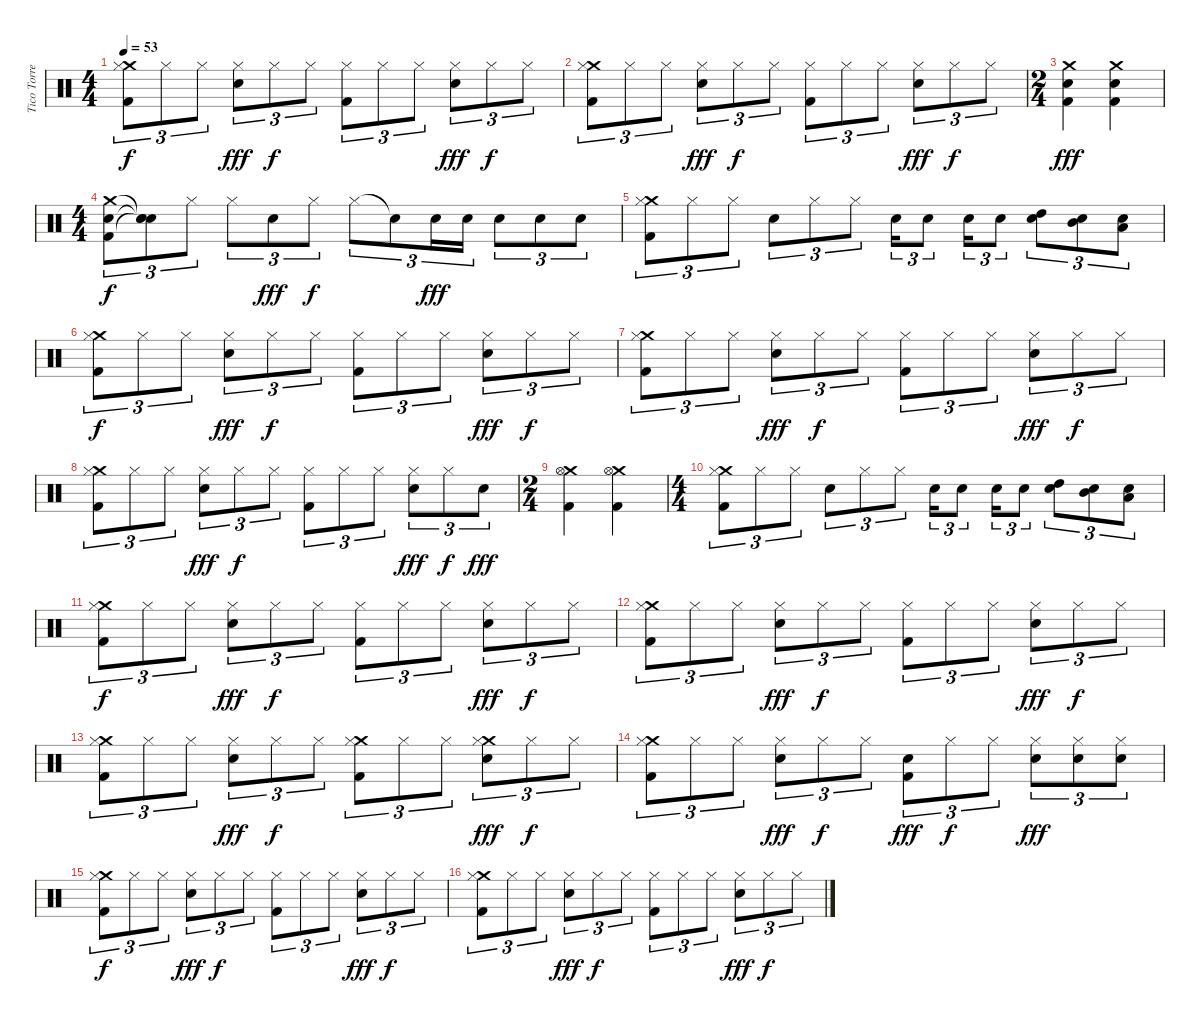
\track ("Tico Torres (Drums)" "Tico Torre") {instrument percussion}
\staff {score}
\articulation defaults
\ts (4 4)
\tempo 53
\clef neutral
\ks c
("Crash medium (hit)" "Hi-Hat (closed)" "Kick (hit) 2").8{tu (3 2) dy f} "Hi-Hat (closed)".8{tu (3 2)} "Hi-Hat (closed)".8{tu (3 2)} ("Snare (hit) 2" "Hi-Hat (closed)").8{tu (3 2) dy fff} "Hi-Hat (closed)".8{tu (3 2) dy f} "Hi-Hat (closed)".8{tu (3 2)} ("Hi-Hat (closed)" "Kick (hit) 2").8{tu (3 2)} "Hi-Hat (closed)".8{tu (3 2)} "Hi-Hat (closed)".8{tu (3 2)} ("Snare (hit) 2" "Hi-Hat (closed)").8{tu (3 2) dy fff} "Hi-Hat (closed)".8{tu (3 2) dy f} "Hi-Hat (closed)".8{tu (3 2)} |
("Crash medium (hit)" "Hi-Hat (closed)" "Kick (hit) 2").8{tu (3 2)} "Hi-Hat (closed)".8{tu (3 2)} "Hi-Hat (closed)".8{tu (3 2)} ("Snare (hit) 2" "Hi-Hat (closed)").8{tu (3 2) dy fff} "Hi-Hat (closed)".8{tu (3 2) dy f} "Hi-Hat (closed)".8{tu (3 2)} ("Hi-Hat (closed)" "Kick (hit) 2").8{tu (3 2)} "Hi-Hat (closed)".8{tu (3 2)} "Hi-Hat (closed)".8{tu (3 2)} ("Snare (hit) 2" "Hi-Hat (closed)").8{tu (3 2) dy fff} "Hi-Hat (closed)".8{tu (3 2) dy f} "Hi-Hat (closed)".8{tu (3 2)} |
\ts (2 4)
("Crash medium (hit)" "Kick (hit) 2" "Snare (hit) 2").4{dy fff} ("Crash medium (hit)" "Kick (hit) 2" "Snare (hit) 2").4 |
\ts (4 4)
("Crash medium (hit)" "Kick (hit) 2" "Snare (hit) 2").8{tu (3 2) dy f volume 16} ("Snare (hit)"{t} "Snare (hit)"{t} "Snare (hit)"{t}).8{tu (3 2)} "Hi-Hat (closed)".8{tu (3 2)} "Hi-Hat (closed)".8{tu (3 2)} "Snare (hit) 2".8{tu (3 2) dy fff} "Hi-Hat (closed)".8{tu (3 2) dy f} "Hi-Hat (closed)".8{tu (3 2)} "Snare (hit)"{t}.8{tu (3 2)} "Snare (hit) 2".16{tu (3 2) dy fff} "Snare (hit) 2".16{tu (3 2)} "Snare (hit) 2".8{tu (3 2)} "Snare (hit) 2".8{tu (3 2)} "Snare (hit) 2".8{tu (3 2)} |
("Crash medium (hit)" "Kick (hit) 2" "Hi-Hat (closed)").8{tu (3 2)} "Hi-Hat (closed)".8{tu (3 2)} "Hi-Hat (closed)".8{tu (3 2)} "Snare (hit) 2".8{tu (3 2)} "Hi-Hat (closed)".8{tu (3 2)} "Hi-Hat (closed)".8{tu (3 2)} "Snare (hit) 2".16{tu (3 2)} "Snare (hit) 2".8{tu (3 2)} "Snare (hit) 2".16{tu (3 2)} "Snare (hit) 2".8{tu (3 2)} ("High Tom (hit)" "Snare (hit) 2").8{tu (3 2)} ("Mid Tom (hit)" "Snare (hit) 2").8{tu (3 2)} ("Low Tom (hit)" "Snare (hit) 2").8{tu (3 2)} |
("Crash medium (hit)" "Hi-Hat (closed)" "Kick (hit) 2").8{tu (3 2) dy f} "Hi-Hat (closed)".8{tu (3 2)} "Hi-Hat (closed)".8{tu (3 2)} ("Snare (hit) 2" "Hi-Hat (closed)").8{tu (3 2) dy fff} "Hi-Hat (closed)".8{tu (3 2) dy f} "Hi-Hat (closed)".8{tu (3 2)} ("Hi-Hat (closed)" "Kick (hit) 2").8{tu (3 2)} "Hi-Hat (closed)".8{tu (3 2)} "Hi-Hat (closed)".8{tu (3 2)} ("Snare (hit) 2" "Hi-Hat (closed)").8{tu (3 2) dy fff} "Hi-Hat (closed)".8{tu (3 2) dy f} "Hi-Hat (closed)".8{tu (3 2)} |
("Crash medium (hit)" "Hi-Hat (closed)" "Kick (hit) 2").8{tu (3 2)} "Hi-Hat (closed)".8{tu (3 2)} "Hi-Hat (closed)".8{tu (3 2)} ("Snare (hit) 2" "Hi-Hat (closed)").8{tu (3 2) dy fff} "Hi-Hat (closed)".8{tu (3 2) dy f} "Hi-Hat (closed)".8{tu (3 2)} ("Hi-Hat (closed)" "Kick (hit) 2").8{tu (3 2)} "Hi-Hat (closed)".8{tu (3 2)} "Hi-Hat (closed)".8{tu (3 2)} ("Snare (hit) 2" "Hi-Hat (closed)").8{tu (3 2) dy fff} "Hi-Hat (closed)".8{tu (3 2) dy f} "Hi-Hat (closed)".8{tu (3 2)} |
("Crash medium (hit)" "Hi-Hat (closed)" "Kick (hit) 2").8{tu (3 2)} "Hi-Hat (closed)".8{tu (3 2)} "Hi-Hat (closed)".8{tu (3 2)} ("Snare (hit) 2" "Hi-Hat (closed)").8{tu (3 2) dy fff} "Hi-Hat (closed)".8{tu (3 2) dy f} "Hi-Hat (closed)".8{tu (3 2)} ("Hi-Hat (closed)" "Kick (hit) 2").8{tu (3 2)} "Hi-Hat (closed)".8{tu (3 2)} "Hi-Hat (closed)".8{tu (3 2)} ("Snare (hit) 2" "Hi-Hat (closed)").8{tu (3 2) dy fff} "Hi-Hat (closed)".8{tu (3 2) dy f} "Snare (hit) 2".8{tu (3 2) dy fff} |
\ts (2 4)
("Crash medium (hit)" "Kick (hit) 2" "Hi-Hat (open)").4 ("Crash medium (hit)" "Kick (hit) 2" "Hi-Hat (open)").4 |
\ts (4 4)
("Crash medium (hit)" "Kick (hit) 2" "Hi-Hat (closed)").8{tu (3 2)} "Hi-Hat (closed)".8{tu (3 2)} "Hi-Hat (closed)".8{tu (3 2)} "Snare (hit) 2".8{tu (3 2)} "Hi-Hat (closed)".8{tu (3 2)} "Hi-Hat (closed)".8{tu (3 2)} "Snare (hit) 2".16{tu (3 2)} "Snare (hit) 2".8{tu (3 2)} "Snare (hit) 2".16{tu (3 2)} "Snare (hit) 2".8{tu (3 2)} ("High Tom (hit)" "Snare (hit) 2").8{tu (3 2)} ("Mid Tom (hit)" "Snare (hit) 2").8{tu (3 2)} ("Low Tom (hit)" "Snare (hit) 2").8{tu (3 2)} |
("Crash medium (hit)" "Hi-Hat (closed)" "Kick (hit) 2").8{tu (3 2) dy f volume 16} "Hi-Hat (closed)".8{tu (3 2)} "Hi-Hat (closed)".8{tu (3 2)} ("Snare (hit) 2" "Hi-Hat (closed)").8{tu (3 2) dy fff} "Hi-Hat (closed)".8{tu (3 2) dy f} "Hi-Hat (closed)".8{tu (3 2)} ("Hi-Hat (closed)" "Kick (hit) 2").8{tu (3 2)} "Hi-Hat (closed)".8{tu (3 2)} "Hi-Hat (closed)".8{tu (3 2)} ("Snare (hit) 2" "Hi-Hat (closed)").8{tu (3 2) dy fff} "Hi-Hat (closed)".8{tu (3 2) dy f} "Hi-Hat (closed)".8{tu (3 2)} |
("Crash medium (hit)" "Hi-Hat (closed)" "Kick (hit) 2").8{tu (3 2)} "Hi-Hat (closed)".8{tu (3 2)} "Hi-Hat (closed)".8{tu (3 2)} ("Snare (hit) 2" "Hi-Hat (closed)").8{tu (3 2) dy fff} "Hi-Hat (closed)".8{tu (3 2) dy f} "Hi-Hat (closed)".8{tu (3 2)} ("Hi-Hat (closed)" "Kick (hit) 2").8{tu (3 2)} "Hi-Hat (closed)".8{tu (3 2)} "Hi-Hat (closed)".8{tu (3 2)} ("Snare (hit) 2" "Hi-Hat (closed)").8{tu (3 2) dy fff} "Hi-Hat (closed)".8{tu (3 2) dy f} "Hi-Hat (closed)".8{tu (3 2)} |
("Crash medium (hit)" "Hi-Hat (closed)" "Kick (hit) 2").8{tu (3 2)} "Hi-Hat (closed)".8{tu (3 2)} "Hi-Hat (closed)".8{tu (3 2)} ("Snare (hit) 2" "Hi-Hat (closed)").8{tu (3 2) dy fff} "Hi-Hat (closed)".8{tu (3 2) dy f} "Hi-Hat (closed)".8{tu (3 2)} ("Crash medium (hit)" "Hi-Hat (closed)" "Kick (hit) 2").8{tu (3 2)} "Hi-Hat (closed)".8{tu (3 2)} "Hi-Hat (closed)".8{tu (3 2)} ("Crash medium (hit)" "Snare (hit) 2" "Hi-Hat (closed)").8{tu (3 2) dy fff} "Hi-Hat (closed)".8{tu (3 2) dy f} "Hi-Hat (closed)".8{tu (3 2)} |
("Crash medium (hit)" "Hi-Hat (closed)" "Kick (hit) 2").8{tu (3 2)} "Hi-Hat (closed)".8{tu (3 2)} "Hi-Hat (closed)".8{tu (3 2)} ("Snare (hit) 2" "Hi-Hat (closed)").8{tu (3 2) dy fff} "Hi-Hat (closed)".8{tu (3 2) dy f} "Hi-Hat (closed)".8{tu (3 2)} ("Snare (hit) 2" "Kick (hit) 2").8{tu (3 2) dy fff} "Hi-Hat (closed)".8{tu (3 2) dy f} "Hi-Hat (closed)".8{tu (3 2)} ("Snare (hit) 2" "Hi-Hat (closed)").8{tu (3 2) dy fff} ("Snare (hit) 2" "Hi-Hat (closed)").8{tu (3 2)} ("Snare (hit) 2" "Hi-Hat (closed)").8{tu (3 2)} |
("Crash medium (hit)" "Hi-Hat (closed)" "Kick (hit) 2").8{tu (3 2) dy f volume 16} "Hi-Hat (closed)".8{tu (3 2)} "Hi-Hat (closed)".8{tu (3 2)} ("Snare (hit) 2" "Hi-Hat (closed)").8{tu (3 2) dy fff} "Hi-Hat (closed)".8{tu (3 2) dy f} "Hi-Hat (closed)".8{tu (3 2)} ("Hi-Hat (closed)" "Kick (hit) 2").8{tu (3 2)} "Hi-Hat (closed)".8{tu (3 2)} "Hi-Hat (closed)".8{tu (3 2)} ("Snare (hit) 2" "Hi-Hat (closed)").8{tu (3 2) dy fff} "Hi-Hat (closed)".8{tu (3 2) dy f} "Hi-Hat (closed)".8{tu (3 2)} |
("Crash medium (hit)" "Hi-Hat (closed)" "Kick (hit) 2").8{tu (3 2)} "Hi-Hat (closed)".8{tu (3 2)} "Hi-Hat (closed)".8{tu (3 2)} ("Snare (hit) 2" "Hi-Hat (closed)").8{tu (3 2) dy fff} "Hi-Hat (closed)".8{tu (3 2) dy f} "Hi-Hat (closed)".8{tu (3 2)} ("Hi-Hat (closed)" "Kick (hit) 2").8{tu (3 2)} "Hi-Hat (closed)".8{tu (3 2)} "Hi-Hat (closed)".8{tu (3 2)} ("Snare (hit) 2" "Hi-Hat (closed)").8{tu (3 2) dy fff} "Hi-Hat (closed)".8{tu (3 2) dy f} "Hi-Hat (closed)".8{tu (3 2)}
